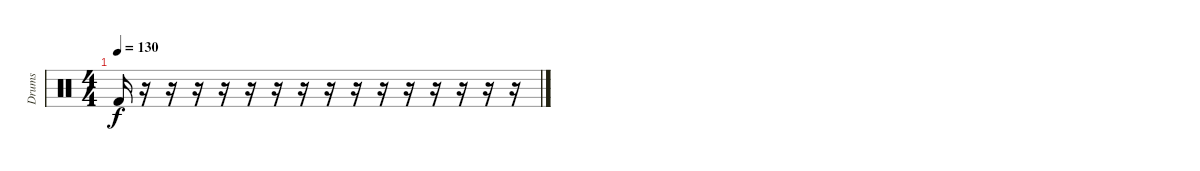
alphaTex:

\track ("Drums" "Drums") {instrument percussion}
\staff {score}
\articulation defaults
\ts (4 4)
\tempo 130
\clef neutral
\ks c "Kick (hit) 2".16{dy f}
r.16 r.16 r.16 r.16 r.16 r.16 r.16 r.16 r.16 r.16 r.16 r.16 r.16 r.16 r.16
